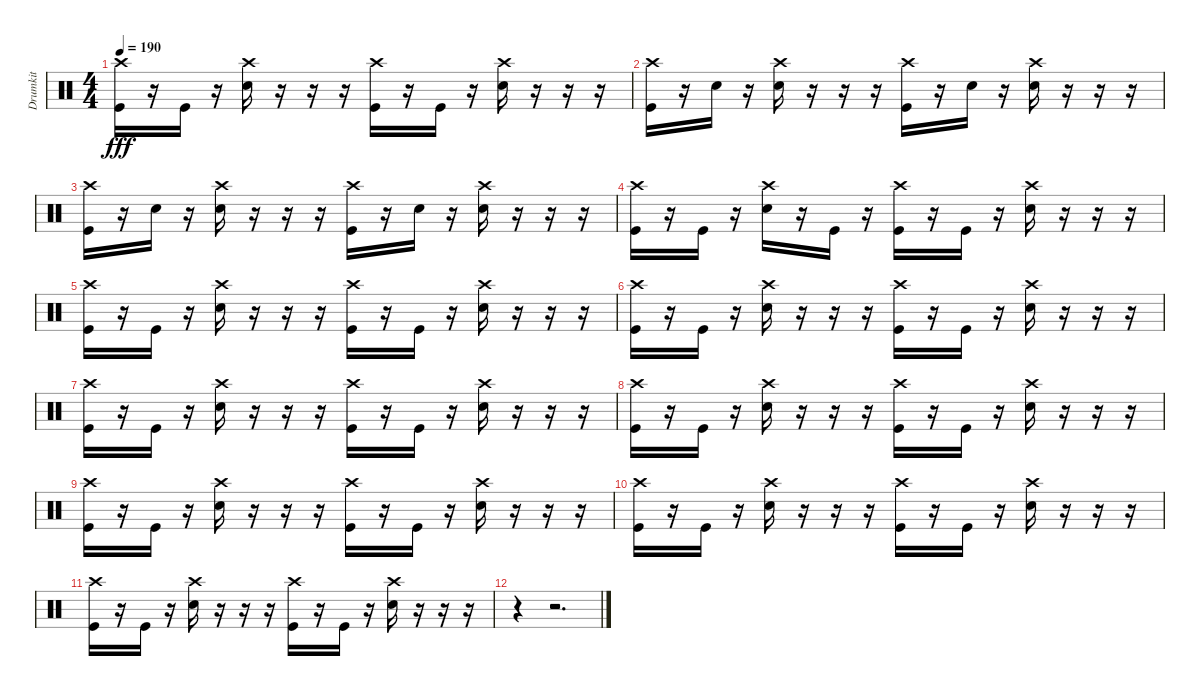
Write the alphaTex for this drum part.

\track ("Drumkit" "Drumkit") {instrument percussion}
\staff {score}
\articulation defaults
\ts (4 4)
\tempo 190
\clef neutral
\ks c
("Crash high (hit)" "Kick (hit)").16{dy fff} r.16 "Kick (hit)".16 r.16 ("Crash high (hit)" "Snare (hit) 2").16 r.16 r.16 r.16 ("Crash high (hit)" "Kick (hit)").16 r.16 "Kick (hit)".16 r.16 ("Crash high (hit)" "Snare (hit) 2").16 r.16 r.16 r.16 |
("Crash high (hit)" "Kick (hit)").16 r.16{volume 11} "Snare (hit) 2".16 r.16 ("Crash high (hit)" "Snare (hit) 2").16 r.16 r.16 r.16 ("Crash high (hit)" "Kick (hit)").16 r.16 "Snare (hit) 2".16 r.16 ("Crash high (hit)" "Snare (hit) 2").16 r.16 r.16 r.16 |
("Crash high (hit)" "Kick (hit)").16 r.16 "Snare (hit) 2".16 r.16 ("Crash high (hit)" "Snare (hit) 2").16 r.16 r.16 r.16 ("Crash high (hit)" "Kick (hit)").16 r.16 "Snare (hit) 2".16 r.16 ("Crash high (hit)" "Snare (hit) 2").16 r.16 r.16 r.16 |
("Crash high (hit)" "Kick (hit)").16 r.16 "Kick (hit)".16 r.16 ("Crash high (hit)" "Snare (hit) 2").16 r.16 "Kick (hit)".16 r.16 ("Crash high (hit)" "Kick (hit)").16 r.16 "Kick (hit)".16 r.16 ("Crash high (hit)" "Snare (hit) 2").16 r.16 r.16 r.16 |
("Crash high (hit)" "Kick (hit)").16 r.16 "Kick (hit)".16 r.16 ("Crash high (hit)" "Snare (hit) 2").16 r.16 r.16 r.16 ("Crash high (hit)" "Kick (hit)").16 r.16 "Kick (hit)".16 r.16 ("Crash high (hit)" "Snare (hit) 2").16 r.16 r.16 r.16 |
("Crash high (hit)" "Kick (hit)").16 r.16 "Kick (hit)".16 r.16 ("Crash high (hit)" "Snare (hit) 2").16 r.16 r.16 r.16 ("Crash high (hit)" "Kick (hit)").16 r.16 "Kick (hit)".16 r.16 ("Crash high (hit)" "Snare (hit) 2").16 r.16 r.16 r.16 |
("Crash high (hit)" "Kick (hit)").16 r.16 "Kick (hit)".16 r.16 ("Crash high (hit)" "Snare (hit) 2").16 r.16 r.16 r.16 ("Crash high (hit)" "Kick (hit)").16 r.16 "Kick (hit)".16 r.16 ("Crash high (hit)" "Snare (hit) 2").16 r.16 r.16 r.16 |
("Crash high (hit)" "Kick (hit)").16 r.16 "Kick (hit)".16 r.16 ("Crash high (hit)" "Snare (hit) 2").16 r.16 r.16 r.16 ("Crash high (hit)" "Kick (hit)").16 r.16 "Kick (hit)".16 r.16 ("Crash high (hit)" "Snare (hit) 2").16 r.16 r.16 r.16 |
("Crash high (hit)" "Kick (hit)").16 r.16 "Kick (hit)".16 r.16 ("Crash high (hit)" "Snare (hit) 2").16 r.16 r.16 r.16 ("Crash high (hit)" "Kick (hit)").16 r.16 "Kick (hit)".16 r.16 ("Crash high (hit)" "Snare (hit) 2").16 r.16 r.16 r.16 |
("Crash high (hit)" "Kick (hit)").16 r.16 "Kick (hit)".16 r.16 ("Crash high (hit)" "Snare (hit) 2").16 r.16 r.16 r.16 ("Crash high (hit)" "Kick (hit)").16 r.16 "Kick (hit)".16 r.16 ("Crash high (hit)" "Snare (hit) 2").16 r.16 r.16 r.16 |
("Crash high (hit)" "Kick (hit)").16 r.16 "Kick (hit)".16 r.16 ("Crash high (hit)" "Snare (hit) 2").16 r.16 r.16 r.16 ("Crash high (hit)" "Kick (hit)").16 r.16 "Kick (hit)".16 r.16 ("Crash high (hit)" "Snare (hit) 2").16 r.16 r.16 r.16 |
r.4{volume 0} r.2{d}
